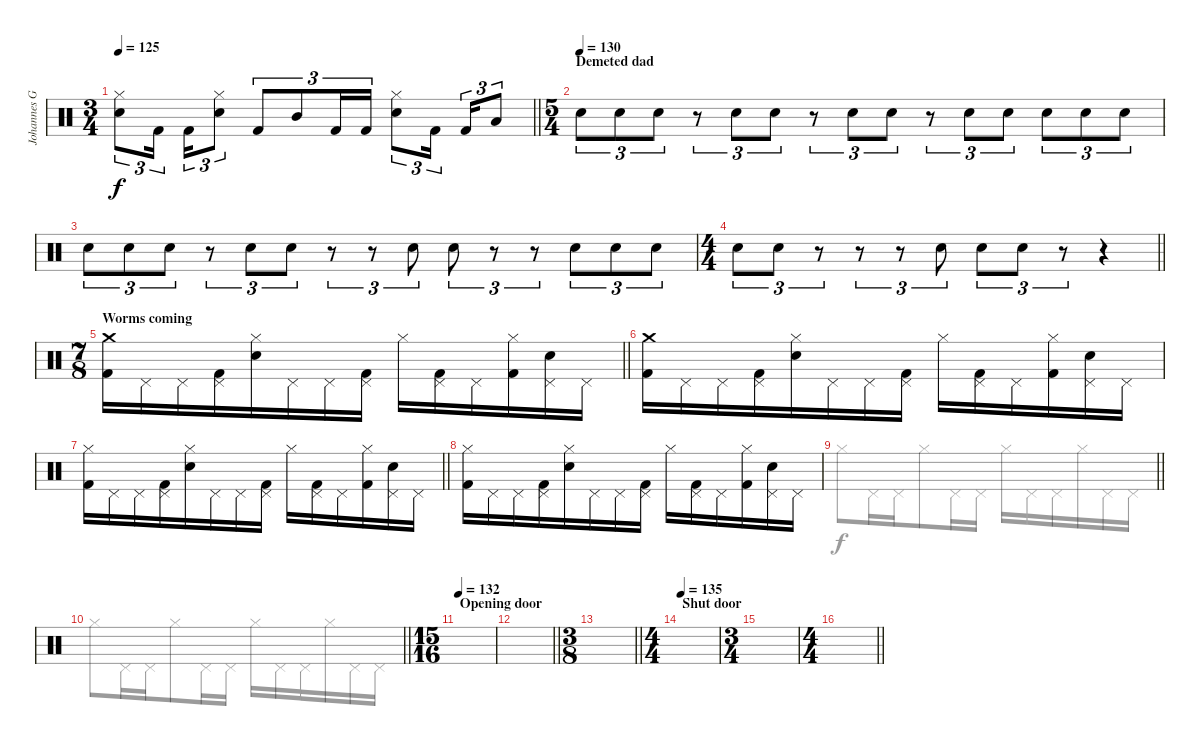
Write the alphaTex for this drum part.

\track ("Johannes Grossmann" "Johannes G") {instrument percussion}
\staff {score}
\articulation defaults
\voice
\ts (3 4)
\tempo 125
\clef neutral
\barLineRight lightlight
\ks c
("Hi-Hat (closed)" "Snare (hit) 2").8{tu (3 2) dy f} "Kick (hit) 2".16{tu (3 2) beam splitsecondary} "Kick (hit) 2".16{tu (3 2)} ("Hi-Hat (closed)" "Snare (hit) 2").8{tu (3 2)} "Kick (hit) 2".8{tu (3 2)} "Mid Tom (hit)".8{tu (3 2)} "Kick (hit) 2".16{tu (3 2)} "Kick (hit) 2".16{tu (3 2)} ("Hi-Hat (closed)" "Snare (hit) 2").8{tu (3 2)} "Kick (hit) 2".16{tu (3 2) beam splitsecondary} "Kick (hit) 2".16{tu (3 2)} "Low Floor Tom (hit)".8{tu (3 2)} |
\ts (5 4)
\section ("" "Demeted dad")
\tempo (130)
"Snare (hit) 2".8{tu (3 2)} "Snare (hit) 2".8{tu (3 2)} "Snare (hit) 2".8{tu (3 2)} r.8{tu (3 2)} "Snare (hit) 2".8{tu (3 2)} "Snare (hit) 2".8{tu (3 2)} r.8{tu (3 2)} "Snare (hit) 2".8{tu (3 2)} "Snare (hit) 2".8{tu (3 2)} r.8{tu (3 2)} "Snare (hit) 2".8{tu (3 2)} "Snare (hit) 2".8{tu (3 2)} "Snare (hit) 2".8{tu (3 2)} "Snare (hit) 2".8{tu (3 2)} "Snare (hit) 2".8{tu (3 2)} |
"Snare (hit) 2".8{tu (3 2)} "Snare (hit) 2".8{tu (3 2)} "Snare (hit) 2".8{tu (3 2)} r.8{tu (3 2)} "Snare (hit) 2".8{tu (3 2)} "Snare (hit) 2".8{tu (3 2)} r.8{tu (3 2)} r.8{tu (3 2)} "Snare (hit) 2".8{tu (3 2)} "Snare (hit) 2".8{tu (3 2)} r.8{tu (3 2)} r.8{tu (3 2)} "Snare (hit) 2".8{tu (3 2)} "Snare (hit) 2".8{tu (3 2)} "Snare (hit) 2".8{tu (3 2)} |
\ts (4 4)
\barLineRight lightlight "Snare (hit) 2".8{tu (3 2)} "Snare (hit) 2".8{tu (3 2)}
r.8{tu (3 2)} r.8{tu (3 2)} r.8{tu (3 2)} "Snare (hit) 2".8{tu (3 2)} "Snare (hit) 2".8{tu (3 2)} "Snare (hit) 2".8{tu (3 2)} r.8{tu (3 2)} r.4 |
\ts (7 8)
\section ("" "Worms coming")
\barLineRight lightlight
("Crash medium (hit)" "Kick (hit) 2").16 "Pedal Hi-Hat (hit)".16 "Pedal Hi-Hat (hit)".16 ("Pedal Hi-Hat (hit)" "Kick (hit) 2").16 ("Hi-Hat (closed)" "Snare (hit) 2").16 "Pedal Hi-Hat (hit)".16 "Pedal Hi-Hat (hit)".16 ("Pedal Hi-Hat (hit)" "Kick (hit) 2").16 "Hi-Hat (closed)".16 ("Pedal Hi-Hat (hit)" "Kick (hit) 2").16 "Pedal Hi-Hat (hit)".16 ("Hi-Hat (closed)" "Kick (hit) 2").16 ("Pedal Hi-Hat (hit)" "Snare (hit) 2").16 "Pedal Hi-Hat (hit)".16 |
("Crash medium (hit)" "Kick (hit) 2").16 "Pedal Hi-Hat (hit)".16 "Pedal Hi-Hat (hit)".16 ("Pedal Hi-Hat (hit)" "Kick (hit) 2").16 ("Hi-Hat (closed)" "Snare (hit) 2").16 "Pedal Hi-Hat (hit)".16 "Pedal Hi-Hat (hit)".16 ("Pedal Hi-Hat (hit)" "Kick (hit) 2").16 "Hi-Hat (closed)".16 ("Pedal Hi-Hat (hit)" "Kick (hit) 2").16 "Pedal Hi-Hat (hit)".16 ("Hi-Hat (closed)" "Kick (hit) 2").16 ("Pedal Hi-Hat (hit)" "Snare (hit) 2").16 "Pedal Hi-Hat (hit)".16 |
\barLineRight lightlight
("Hi-Hat (closed)" "Kick (hit) 2").16 "Pedal Hi-Hat (hit)".16 "Pedal Hi-Hat (hit)".16 ("Pedal Hi-Hat (hit)" "Kick (hit) 2").16 ("Hi-Hat (closed)" "Snare (hit) 2").16 "Pedal Hi-Hat (hit)".16 "Pedal Hi-Hat (hit)".16 ("Pedal Hi-Hat (hit)" "Kick (hit) 2").16 "Hi-Hat (closed)".16 ("Pedal Hi-Hat (hit)" "Kick (hit) 2").16 "Pedal Hi-Hat (hit)".16 ("Hi-Hat (closed)" "Kick (hit) 2").16 ("Pedal Hi-Hat (hit)" "Snare (hit) 2").16 "Pedal Hi-Hat (hit)".16 |
("Hi-Hat (closed)" "Kick (hit) 2").16 "Pedal Hi-Hat (hit)".16 "Pedal Hi-Hat (hit)".16 ("Pedal Hi-Hat (hit)" "Kick (hit) 2").16 ("Hi-Hat (closed)" "Snare (hit) 2").16 "Pedal Hi-Hat (hit)".16 "Pedal Hi-Hat (hit)".16 ("Pedal Hi-Hat (hit)" "Kick (hit) 2").16 "Hi-Hat (closed)".16 ("Pedal Hi-Hat (hit)" "Kick (hit) 2").16 "Pedal Hi-Hat (hit)".16 ("Hi-Hat (closed)" "Kick (hit) 2").16 ("Pedal Hi-Hat (hit)" "Snare (hit) 2").16 "Pedal Hi-Hat (hit)".16 |
\barLineRight lightlight
|
\barLineRight lightlight
|
\ts (15 16)
\section ("" "Opening door")
\tempo 132
|
\barLineRight lightlight
|
\ts (3 8)
\barLineRight lightlight
|
\ts (4 4)
\section ("" "Shut door")
\tempo 135
|
\ts (3 4)
|
\ts (4 4)
\voice
\clef neutral
\ottava regular
\simile none
\barLineRight lightlight
\ks c
|
|
|
\barLineRight lightlight
|
\barLineRight lightlight
|
|
\barLineRight lightlight
|
|
\barLineRight lightlight "Hi-Hat (closed)".8 "Pedal Hi-Hat (hit)".16 "Pedal Hi-Hat (hit)".16 "Hi-Hat (closed)".8 "Pedal Hi-Hat (hit)".16 "Pedal Hi-Hat (hit)".16 "Hi-Hat (closed)".16 "Pedal Hi-Hat (hit)".16 "Pedal Hi-Hat (hit)".16 "Hi-Hat (closed)".16 "Pedal Hi-Hat (hit)".16 "Pedal Hi-Hat (hit)".16
|
\barLineRight lightlight "Hi-Hat (closed)".8 "Pedal Hi-Hat (hit)".16 "Pedal Hi-Hat (hit)".16 "Hi-Hat (closed)".8 "Pedal Hi-Hat (hit)".16 "Pedal Hi-Hat (hit)".16 "Hi-Hat (closed)".16 "Pedal Hi-Hat (hit)".16 "Pedal Hi-Hat (hit)".16 "Hi-Hat (closed)".16 "Pedal Hi-Hat (hit)".16 "Pedal Hi-Hat (hit)".16
|
|
\barLineRight lightlight
|
\barLineRight lightlight
|
|
|
